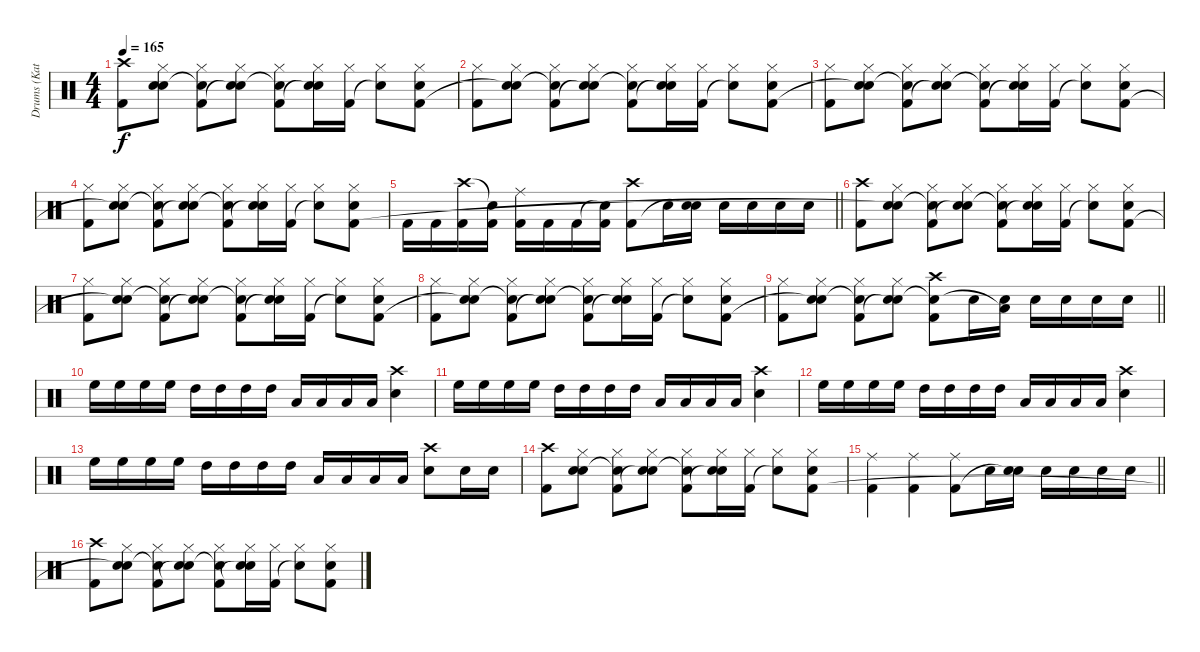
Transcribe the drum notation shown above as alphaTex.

\track ("Drums (Katsuji)" "Drums (Kat") {instrument percussion}
\staff {score}
\articulation defaults
\ts (4 4)
\tempo 165
\clef neutral
\ks c
("Crash high (hit)" "Kick (hit) 2").8{dy f} ("Hi-Hat (closed)" "Snare (hit) 2" "Snare (hit)"{t}).8 ("Hi-Hat (closed)" "Snare (hit)"{t} "Kick (hit) 2").8 ("Hi-Hat (closed)" "Snare (hit) 2" "Snare (hit)"{t}).8 ("Hi-Hat (closed)" "Snare (hit)"{t} "Kick (hit) 2").8 ("Hi-Hat (closed)" "Snare (hit) 2" "Snare (hit)"{t}).16 ("Hi-Hat (closed)" "Kick (hit) 2").16 ("Hi-Hat (closed)" "Snare (hit)"{t}).8 ("Hi-Hat (closed)" "Snare (hit) 2" "Kick (hit) 2").8 |
("Hi-Hat (closed)" "Kick (hit) 2").8 ("Hi-Hat (closed)" "Snare (hit) 2" "Snare (hit)"{t}).8 ("Hi-Hat (closed)" "Snare (hit)"{t} "Kick (hit) 2").8 ("Hi-Hat (closed)" "Snare (hit) 2" "Snare (hit)"{t}).8 ("Hi-Hat (closed)" "Snare (hit)"{t} "Kick (hit) 2").8 ("Hi-Hat (closed)" "Snare (hit) 2" "Snare (hit)"{t}).16 ("Hi-Hat (closed)" "Kick (hit) 2").16 ("Hi-Hat (closed)" "Snare (hit)"{t}).8 ("Hi-Hat (closed)" "Snare (hit) 2" "Kick (hit) 2").8 |
("Hi-Hat (closed)" "Kick (hit) 2").8 ("Hi-Hat (closed)" "Snare (hit) 2" "Snare (hit)"{t}).8 ("Hi-Hat (closed)" "Snare (hit)"{t} "Kick (hit) 2").8 ("Hi-Hat (closed)" "Snare (hit) 2" "Snare (hit)"{t}).8 ("Hi-Hat (closed)" "Snare (hit)"{t} "Kick (hit) 2").8 ("Hi-Hat (closed)" "Snare (hit) 2" "Snare (hit)"{t}).16 ("Hi-Hat (closed)" "Kick (hit) 2").16 ("Hi-Hat (closed)" "Snare (hit)"{t}).8 ("Hi-Hat (closed)" "Snare (hit) 2" "Kick (hit) 2").8 |
("Hi-Hat (closed)" "Kick (hit) 2").8 ("Hi-Hat (closed)" "Snare (hit) 2" "Snare (hit)"{t}).8 ("Hi-Hat (closed)" "Snare (hit)"{t} "Kick (hit) 2").8 ("Hi-Hat (closed)" "Snare (hit) 2" "Snare (hit)"{t}).8 ("Hi-Hat (closed)" "Snare (hit)"{t} "Kick (hit) 2").8 ("Hi-Hat (closed)" "Snare (hit) 2" "Snare (hit)"{t}).16 ("Hi-Hat (closed)" "Kick (hit) 2").16 ("Hi-Hat (closed)" "Snare (hit)"{t}).8 ("Hi-Hat (closed)" "Snare (hit) 2" "Kick (hit) 2").8 |
\barLineRight lightlight "Kick (hit) 2".16 "Kick (hit) 2".16
("Crash high (hit)" "Kick (hit) 2").16 ("Snare (hit)"{t} "Kick (hit) 2").16 ("Ride (middle)" "Kick (hit) 2").16 "Kick (hit) 2".16 "Kick (hit) 2".16 ("Snare (hit)"{t} "Kick (hit) 2").16 ("Crash high (hit)" "Kick (hit) 2").8 "Snare (hit) 2".16 ("Snare (hit) 2" "Snare (hit)"{t}).16 "Snare (hit) 2".16 "Snare (hit) 2".16 "Snare (hit) 2".16 "Snare (hit) 2".16 |
("Crash high (hit)" "Kick (hit) 2").8 ("Hi-Hat (closed)" "Snare (hit) 2" "Snare (hit)"{t}).8 ("Hi-Hat (closed)" "Snare (hit)"{t} "Kick (hit) 2").8 ("Hi-Hat (closed)" "Snare (hit) 2" "Snare (hit)"{t}).8 ("Hi-Hat (closed)" "Snare (hit)"{t} "Kick (hit) 2").8 ("Hi-Hat (closed)" "Snare (hit) 2" "Snare (hit)"{t}).16 ("Hi-Hat (closed)" "Kick (hit) 2").16 ("Hi-Hat (closed)" "Snare (hit)"{t}).8 ("Hi-Hat (closed)" "Snare (hit) 2" "Kick (hit) 2").8 |
("Hi-Hat (closed)" "Kick (hit) 2").8 ("Hi-Hat (closed)" "Snare (hit) 2" "Snare (hit)"{t}).8 ("Hi-Hat (closed)" "Snare (hit)"{t} "Kick (hit) 2").8 ("Hi-Hat (closed)" "Snare (hit) 2" "Snare (hit)"{t}).8 ("Hi-Hat (closed)" "Snare (hit)"{t} "Kick (hit) 2").8 ("Hi-Hat (closed)" "Snare (hit) 2" "Snare (hit)"{t}).16 ("Hi-Hat (closed)" "Kick (hit) 2").16 ("Hi-Hat (closed)" "Snare (hit)"{t}).8 ("Hi-Hat (closed)" "Snare (hit) 2" "Kick (hit) 2").8 |
("Hi-Hat (closed)" "Kick (hit) 2").8 ("Hi-Hat (closed)" "Snare (hit) 2" "Snare (hit)"{t}).8 ("Hi-Hat (closed)" "Snare (hit)"{t} "Kick (hit) 2").8 ("Hi-Hat (closed)" "Snare (hit) 2" "Snare (hit)"{t}).8 ("Hi-Hat (closed)" "Snare (hit) 2"{t} "Kick (hit) 2").8 ("Hi-Hat (closed)" "Snare (hit) 2" "Snare (hit)"{t}).16 ("Hi-Hat (closed)" "Kick (hit) 2").16 ("Hi-Hat (closed)" "Snare (hit)"{t}).8 ("Hi-Hat (closed)" "Snare (hit) 2" "Kick (hit) 2").8 |
\barLineRight lightlight
("Hi-Hat (closed)" "Kick (hit) 2").8 ("Hi-Hat (closed)" "Snare (hit) 2" "Snare (hit)"{t}).8 ("Hi-Hat (closed)" "Snare (hit)"{t} "Kick (hit) 2").8 ("Hi-Hat (closed)" "Snare (hit) 2" "Snare (hit)"{t}).8 ("Crash high (hit)" "Snare (hit)"{t} "Kick (hit) 2").8 "Snare (hit) 2".16 ("Snare (hit) 2" "Low Floor Tom (hit)"{t}).16 "Snare (hit) 2".16 "Snare (hit) 2".16 "Snare (hit) 2".16 "Snare (hit) 2".16 |
"High Floor Tom (hit)".16 "High Floor Tom (hit)".16 "High Floor Tom (hit)".16 "High Floor Tom (hit)".16 "High Tom (hit)".16 "High Tom (hit)".16 "High Tom (hit)".16 "High Tom (hit)".16 "Low Tom (hit)".16 "Low Tom (hit)".16 "Low Tom (hit)".16 "Low Tom (hit)".16 ("Crash high (hit)" "Snare (hit) 2").4 |
"High Floor Tom (hit)".16 "High Floor Tom (hit)".16 "High Floor Tom (hit)".16 "High Floor Tom (hit)".16 "High Tom (hit)".16 "High Tom (hit)".16 "High Tom (hit)".16 "High Tom (hit)".16 "Low Tom (hit)".16 "Low Tom (hit)".16 "Low Tom (hit)".16 "Low Tom (hit)".16 ("Crash high (hit)" "Snare (hit) 2").4 |
"High Floor Tom (hit)".16 "High Floor Tom (hit)".16 "High Floor Tom (hit)".16 "High Floor Tom (hit)".16 "High Tom (hit)".16 "High Tom (hit)".16 "High Tom (hit)".16 "High Tom (hit)".16 "Low Tom (hit)".16 "Low Tom (hit)".16 "Low Tom (hit)".16 "Low Tom (hit)".16 ("Crash high (hit)" "Snare (hit) 2").4 |
"High Floor Tom (hit)".16 "High Floor Tom (hit)".16 "High Floor Tom (hit)".16 "High Floor Tom (hit)".16 "High Tom (hit)".16 "High Tom (hit)".16 "High Tom (hit)".16 "High Tom (hit)".16 "Low Tom (hit)".16 "Low Tom (hit)".16 "Low Tom (hit)".16 "Low Tom (hit)".16 ("Crash high (hit)" "Snare (hit) 2").8 "Snare (hit) 2".16 "Snare (hit) 2".16 |
("Crash high (hit)" "Kick (hit) 2").8 ("Hi-Hat (closed)" "Snare (hit) 2" "Snare (hit)").8 ("Hi-Hat (closed)" "Snare (hit)"{t} "Kick (hit) 2").8 ("Hi-Hat (closed)" "Snare (hit) 2" "Snare (hit)"{t}).8 ("Hi-Hat (closed)" "Snare (hit)"{t} "Kick (hit) 2").8 ("Hi-Hat (closed)" "Snare (hit) 2" "Snare (hit)"{t}).16 ("Hi-Hat (closed)" "Kick (hit) 2").16 ("Hi-Hat (closed)" "Snare (hit)"{t}).8 ("Hi-Hat (closed)" "Snare (hit) 2" "Kick (hit) 2").8 |
\barLineRight lightlight
("Ride (middle)" "Kick (hit) 2").4 ("Ride (middle)" "Kick (hit) 2").4 ("Ride (middle)" "Kick (hit) 2").8 "Snare (hit) 2".16 ("Snare (hit) 2" "Snare (hit)"{t}).16 "Snare (hit) 2".16 "Snare (hit) 2".16 "Snare (hit) 2".16 "Snare (hit) 2".16 |
("Crash high (hit)" "Kick (hit) 2").8 ("Hi-Hat (closed)" "Snare (hit) 2" "Snare (hit)"{t}).8 ("Hi-Hat (closed)" "Snare (hit)"{t} "Kick (hit) 2").8 ("Hi-Hat (closed)" "Snare (hit) 2" "Snare (hit)"{t}).8 ("Hi-Hat (closed)" "Snare (hit)"{t} "Kick (hit) 2").8 ("Hi-Hat (closed)" "Snare (hit) 2" "Snare (hit)"{t}).16 ("Hi-Hat (closed)" "Kick (hit) 2").16 ("Hi-Hat (closed)" "Snare (hit)"{t}).8 ("Hi-Hat (closed)" "Snare (hit) 2" "Kick (hit) 2").8
